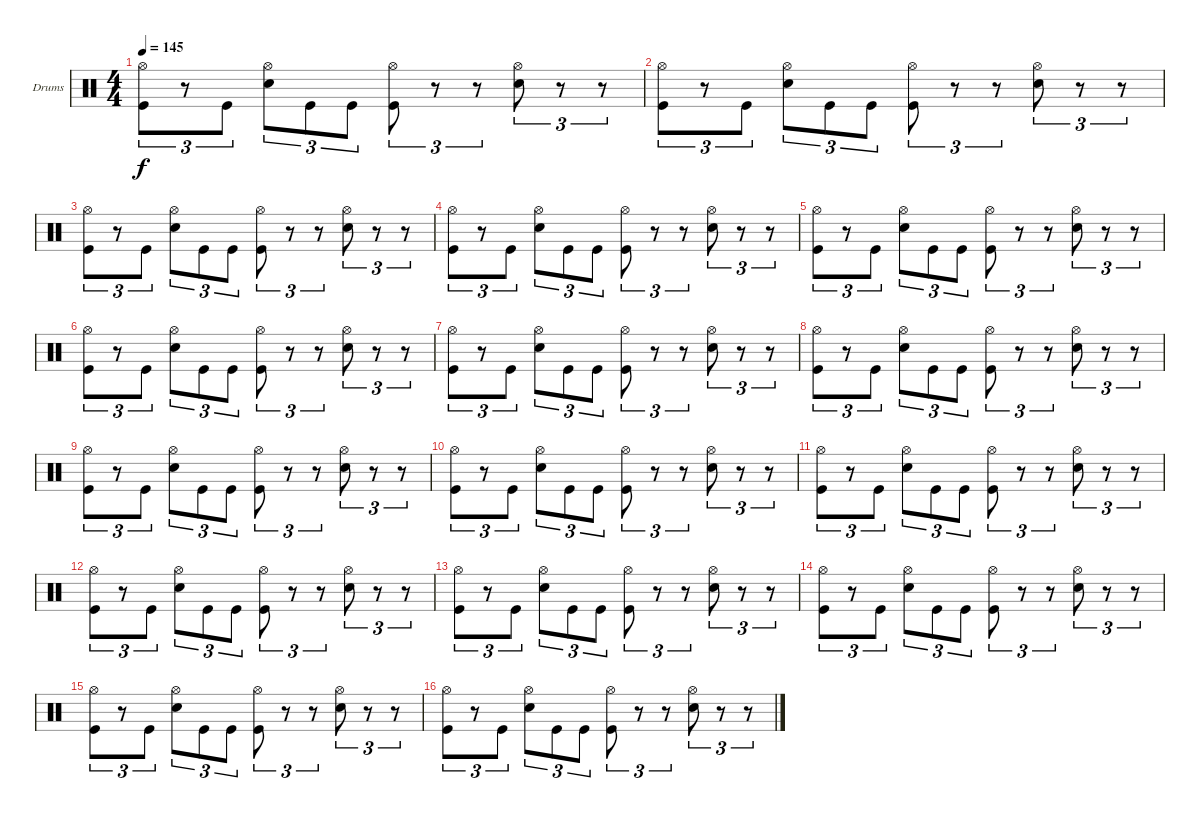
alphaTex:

\bracketExtendMode groupsimilarinstruments
\firstSystemTrackNameOrientation horizontal
\otherSystemsTrackNameOrientation horizontal
\track ("FREDRIK ANDERSSON" "Drums") {instrument percussion}
\staff {score}
\articulation defaults
\ts (4 4)
\tempo 145
\clef neutral
\ks c
("Hi-Hat (open)" "Kick (hit)").8{tu (3 2) dy f} r.8{tu (3 2)} "Kick (hit)".8{tu (3 2)} ("Hi-Hat (open)" "Snare (hit) 2").8{tu (3 2)} "Kick (hit)".8{tu (3 2)} "Kick (hit)".8{tu (3 2)} ("Hi-Hat (open)" "Kick (hit)").8{tu (3 2)} r.8{tu (3 2)} r.8{tu (3 2)} ("Hi-Hat (open)" "Snare (hit) 2").8{tu (3 2)} r.8{tu (3 2)} r.8{tu (3 2)} |
("Hi-Hat (open)" "Kick (hit)").8{tu (3 2)} r.8{tu (3 2)} "Kick (hit)".8{tu (3 2)} ("Hi-Hat (open)" "Snare (hit) 2").8{tu (3 2)} "Kick (hit)".8{tu (3 2)} "Kick (hit)".8{tu (3 2)} ("Hi-Hat (open)" "Kick (hit)").8{tu (3 2)} r.8{tu (3 2)} r.8{tu (3 2)} ("Hi-Hat (open)" "Snare (hit) 2").8{tu (3 2)} r.8{tu (3 2)} r.8{tu (3 2)} |
("Hi-Hat (open)" "Kick (hit)").8{tu (3 2)} r.8{tu (3 2)} "Kick (hit)".8{tu (3 2)} ("Hi-Hat (open)" "Snare (hit) 2").8{tu (3 2)} "Kick (hit)".8{tu (3 2)} "Kick (hit)".8{tu (3 2)} ("Hi-Hat (open)" "Kick (hit)").8{tu (3 2)} r.8{tu (3 2)} r.8{tu (3 2)} ("Hi-Hat (open)" "Snare (hit) 2").8{tu (3 2)} r.8{tu (3 2)} r.8{tu (3 2)} |
("Hi-Hat (open)" "Kick (hit)").8{tu (3 2)} r.8{tu (3 2)} "Kick (hit)".8{tu (3 2)} ("Hi-Hat (open)" "Snare (hit) 2").8{tu (3 2)} "Kick (hit)".8{tu (3 2)} "Kick (hit)".8{tu (3 2)} ("Hi-Hat (open)" "Kick (hit)").8{tu (3 2)} r.8{tu (3 2)} r.8{tu (3 2)} ("Hi-Hat (open)" "Snare (hit) 2").8{tu (3 2)} r.8{tu (3 2)} r.8{tu (3 2)} |
("Hi-Hat (open)" "Kick (hit)").8{tu (3 2)} r.8{tu (3 2)} "Kick (hit)".8{tu (3 2)} ("Hi-Hat (open)" "Snare (hit) 2").8{tu (3 2)} "Kick (hit)".8{tu (3 2)} "Kick (hit)".8{tu (3 2)} ("Hi-Hat (open)" "Kick (hit)").8{tu (3 2)} r.8{tu (3 2)} r.8{tu (3 2)} ("Hi-Hat (open)" "Snare (hit) 2").8{tu (3 2)} r.8{tu (3 2)} r.8{tu (3 2)} |
("Hi-Hat (open)" "Kick (hit)").8{tu (3 2)} r.8{tu (3 2)} "Kick (hit)".8{tu (3 2)} ("Hi-Hat (open)" "Snare (hit) 2").8{tu (3 2)} "Kick (hit)".8{tu (3 2)} "Kick (hit)".8{tu (3 2)} ("Hi-Hat (open)" "Kick (hit)").8{tu (3 2)} r.8{tu (3 2)} r.8{tu (3 2)} ("Hi-Hat (open)" "Snare (hit) 2").8{tu (3 2)} r.8{tu (3 2)} r.8{tu (3 2)} |
("Hi-Hat (open)" "Kick (hit)").8{tu (3 2)} r.8{tu (3 2)} "Kick (hit)".8{tu (3 2)} ("Hi-Hat (open)" "Snare (hit) 2").8{tu (3 2)} "Kick (hit)".8{tu (3 2)} "Kick (hit)".8{tu (3 2)} ("Hi-Hat (open)" "Kick (hit)").8{tu (3 2)} r.8{tu (3 2)} r.8{tu (3 2)} ("Hi-Hat (open)" "Snare (hit) 2").8{tu (3 2)} r.8{tu (3 2)} r.8{tu (3 2)} |
("Hi-Hat (open)" "Kick (hit)").8{tu (3 2)} r.8{tu (3 2)} "Kick (hit)".8{tu (3 2)} ("Hi-Hat (open)" "Snare (hit) 2").8{tu (3 2)} "Kick (hit)".8{tu (3 2)} "Kick (hit)".8{tu (3 2)} ("Hi-Hat (open)" "Kick (hit)").8{tu (3 2)} r.8{tu (3 2)} r.8{tu (3 2)} ("Hi-Hat (open)" "Snare (hit) 2").8{tu (3 2)} r.8{tu (3 2)} r.8{tu (3 2)} |
("Hi-Hat (open)" "Kick (hit)").8{tu (3 2)} r.8{tu (3 2)} "Kick (hit)".8{tu (3 2)} ("Hi-Hat (open)" "Snare (hit) 2").8{tu (3 2)} "Kick (hit)".8{tu (3 2)} "Kick (hit)".8{tu (3 2)} ("Hi-Hat (open)" "Kick (hit)").8{tu (3 2)} r.8{tu (3 2)} r.8{tu (3 2)} ("Hi-Hat (open)" "Snare (hit) 2").8{tu (3 2)} r.8{tu (3 2)} r.8{tu (3 2)} |
("Hi-Hat (open)" "Kick (hit)").8{tu (3 2)} r.8{tu (3 2)} "Kick (hit)".8{tu (3 2)} ("Hi-Hat (open)" "Snare (hit) 2").8{tu (3 2)} "Kick (hit)".8{tu (3 2)} "Kick (hit)".8{tu (3 2)} ("Hi-Hat (open)" "Kick (hit)").8{tu (3 2)} r.8{tu (3 2)} r.8{tu (3 2)} ("Hi-Hat (open)" "Snare (hit) 2").8{tu (3 2)} r.8{tu (3 2)} r.8{tu (3 2)} |
("Hi-Hat (open)" "Kick (hit)").8{tu (3 2)} r.8{tu (3 2)} "Kick (hit)".8{tu (3 2)} ("Hi-Hat (open)" "Snare (hit) 2").8{tu (3 2)} "Kick (hit)".8{tu (3 2)} "Kick (hit)".8{tu (3 2)} ("Hi-Hat (open)" "Kick (hit)").8{tu (3 2)} r.8{tu (3 2)} r.8{tu (3 2)} ("Hi-Hat (open)" "Snare (hit) 2").8{tu (3 2)} r.8{tu (3 2)} r.8{tu (3 2)} |
("Hi-Hat (open)" "Kick (hit)").8{tu (3 2)} r.8{tu (3 2)} "Kick (hit)".8{tu (3 2)} ("Hi-Hat (open)" "Snare (hit) 2").8{tu (3 2)} "Kick (hit)".8{tu (3 2)} "Kick (hit)".8{tu (3 2)} ("Hi-Hat (open)" "Kick (hit)").8{tu (3 2)} r.8{tu (3 2)} r.8{tu (3 2)} ("Hi-Hat (open)" "Snare (hit) 2").8{tu (3 2)} r.8{tu (3 2)} r.8{tu (3 2)} |
("Hi-Hat (open)" "Kick (hit)").8{tu (3 2)} r.8{tu (3 2)} "Kick (hit)".8{tu (3 2)} ("Hi-Hat (open)" "Snare (hit) 2").8{tu (3 2)} "Kick (hit)".8{tu (3 2)} "Kick (hit)".8{tu (3 2)} ("Hi-Hat (open)" "Kick (hit)").8{tu (3 2)} r.8{tu (3 2)} r.8{tu (3 2)} ("Hi-Hat (open)" "Snare (hit) 2").8{tu (3 2)} r.8{tu (3 2)} r.8{tu (3 2)} |
("Hi-Hat (open)" "Kick (hit)").8{tu (3 2)} r.8{tu (3 2)} "Kick (hit)".8{tu (3 2)} ("Hi-Hat (open)" "Snare (hit) 2").8{tu (3 2)} "Kick (hit)".8{tu (3 2)} "Kick (hit)".8{tu (3 2)} ("Hi-Hat (open)" "Kick (hit)").8{tu (3 2)} r.8{tu (3 2)} r.8{tu (3 2)} ("Hi-Hat (open)" "Snare (hit) 2").8{tu (3 2)} r.8{tu (3 2)} r.8{tu (3 2)} |
("Hi-Hat (open)" "Kick (hit)").8{tu (3 2)} r.8{tu (3 2)} "Kick (hit)".8{tu (3 2)} ("Hi-Hat (open)" "Snare (hit) 2").8{tu (3 2)} "Kick (hit)".8{tu (3 2)} "Kick (hit)".8{tu (3 2)} ("Hi-Hat (open)" "Kick (hit)").8{tu (3 2)} r.8{tu (3 2)} r.8{tu (3 2)} ("Hi-Hat (open)" "Snare (hit) 2").8{tu (3 2)} r.8{tu (3 2)} r.8{tu (3 2)} |
("Hi-Hat (open)" "Kick (hit)").8{tu (3 2)} r.8{tu (3 2)} "Kick (hit)".8{tu (3 2)} ("Hi-Hat (open)" "Snare (hit) 2").8{tu (3 2)} "Kick (hit)".8{tu (3 2)} "Kick (hit)".8{tu (3 2)} ("Hi-Hat (open)" "Kick (hit)").8{tu (3 2)} r.8{tu (3 2)} r.8{tu (3 2)} ("Hi-Hat (open)" "Snare (hit) 2").8{tu (3 2)} r.8{tu (3 2)} r.8{tu (3 2)}
